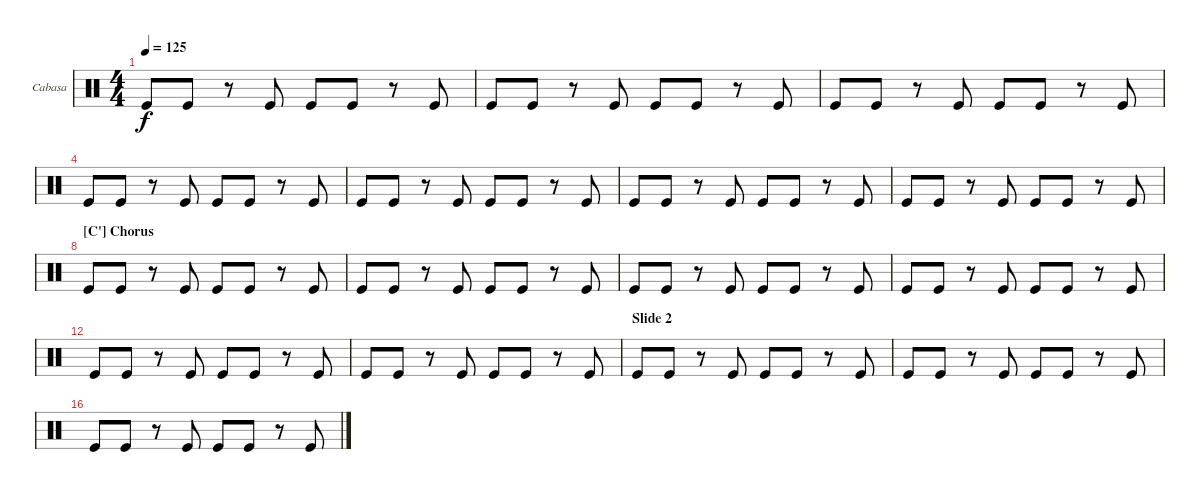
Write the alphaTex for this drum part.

\bracketExtendMode nobrackets
\firstSystemTrackNameOrientation horizontal
\otherSystemsTrackNameOrientation horizontal
\defaultBarNumberDisplay FirstOfSystem
\track ("Cabasa" "Cabasa") {instrument percussion}
\staff {score}
\articulation defaults
\ts (4 4)
\tempo 125
\clef neutral
\ks c "Kick (hit)".8{dy f} "Kick (hit)".8
r.8 "Kick (hit)".8 "Kick (hit)".8 "Kick (hit)".8 r.8 "Kick (hit)".8 |
"Kick (hit)".8 "Kick (hit)".8 r.8 "Kick (hit)".8 "Kick (hit)".8 "Kick (hit)".8 r.8 "Kick (hit)".8 |
"Kick (hit)".8 "Kick (hit)".8 r.8 "Kick (hit)".8 "Kick (hit)".8 "Kick (hit)".8 r.8 "Kick (hit)".8 |
"Kick (hit)".8 "Kick (hit)".8 r.8 "Kick (hit)".8 "Kick (hit)".8 "Kick (hit)".8 r.8 "Kick (hit)".8 |
"Kick (hit)".8 "Kick (hit)".8 r.8 "Kick (hit)".8 "Kick (hit)".8 "Kick (hit)".8 r.8 "Kick (hit)".8 |
"Kick (hit)".8 "Kick (hit)".8 r.8 "Kick (hit)".8 "Kick (hit)".8 "Kick (hit)".8 r.8 "Kick (hit)".8 |
"Kick (hit)".8 "Kick (hit)".8 r.8 "Kick (hit)".8 "Kick (hit)".8 "Kick (hit)".8 r.8 "Kick (hit)".8 |
\section ("C'" "Chorus")
"Kick (hit)".8 "Kick (hit)".8 r.8 "Kick (hit)".8 "Kick (hit)".8 "Kick (hit)".8 r.8 "Kick (hit)".8 |
"Kick (hit)".8 "Kick (hit)".8 r.8 "Kick (hit)".8 "Kick (hit)".8 "Kick (hit)".8 r.8 "Kick (hit)".8 |
"Kick (hit)".8 "Kick (hit)".8 r.8 "Kick (hit)".8 "Kick (hit)".8 "Kick (hit)".8 r.8 "Kick (hit)".8 |
"Kick (hit)".8 "Kick (hit)".8 r.8 "Kick (hit)".8 "Kick (hit)".8 "Kick (hit)".8 r.8 "Kick (hit)".8 |
"Kick (hit)".8 "Kick (hit)".8 r.8 "Kick (hit)".8 "Kick (hit)".8 "Kick (hit)".8 r.8 "Kick (hit)".8 |
"Kick (hit)".8 "Kick (hit)".8 r.8 "Kick (hit)".8 "Kick (hit)".8 "Kick (hit)".8 r.8 "Kick (hit)".8 |
\section ("" "Slide 2")
"Kick (hit)".8 "Kick (hit)".8 r.8 "Kick (hit)".8 "Kick (hit)".8 "Kick (hit)".8 r.8 "Kick (hit)".8 |
"Kick (hit)".8 "Kick (hit)".8 r.8 "Kick (hit)".8 "Kick (hit)".8 "Kick (hit)".8 r.8 "Kick (hit)".8 |
"Kick (hit)".8 "Kick (hit)".8 r.8 "Kick (hit)".8 "Kick (hit)".8 "Kick (hit)".8 r.8 "Kick (hit)".8
